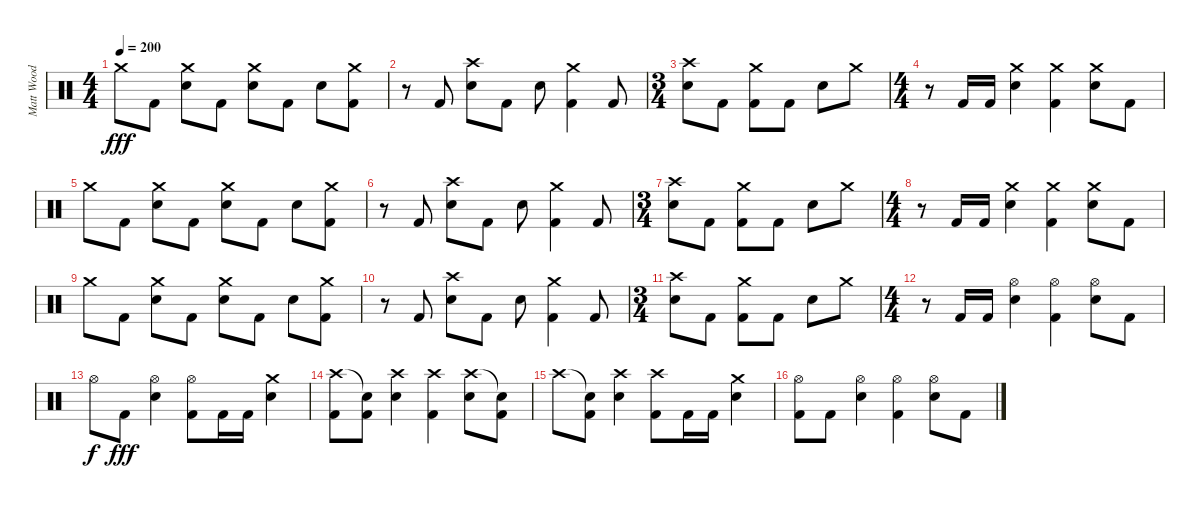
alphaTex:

\track ("Matt Wood" "Matt Wood") {instrument percussion}
\staff {score}
\articulation defaults
\ts (4 4)
\tempo 200
\clef neutral
\ks c "Crash medium (hit)".8{dy fff} "Kick (hit) 2".8
("Crash medium (hit)" "Electric Snare (hit)").8 "Kick (hit) 2".8 ("Crash medium (hit)" "Electric Snare (hit)").8 "Kick (hit) 2".8 "Electric Snare (hit)".8 ("Crash medium (hit)" "Kick (hit) 2").8 |
r.8 "Kick (hit) 2".8 ("Crash high (hit)" "Electric Snare (hit)").8 "Kick (hit) 2".8 "Electric Snare (hit)".8 ("Crash medium (hit)" "Kick (hit) 2").4 "Kick (hit) 2".8 |
\ts (3 4)
("Crash high (hit)" "Electric Snare (hit)").8 "Kick (hit) 2".8 ("Crash medium (hit)" "Kick (hit) 2").8 "Kick (hit) 2".8 "Electric Snare (hit)".8 "Crash medium (hit)".8 |
\ts (4 4)
r.8 "Kick (hit) 2".16 "Kick (hit) 2".16 ("Crash medium (hit)" "Electric Snare (hit)").4 ("Crash medium (hit)" "Kick (hit) 2").4 ("Crash medium (hit)" "Electric Snare (hit)").8 "Kick (hit) 2".8 |
"Crash medium (hit)".8 "Kick (hit) 2".8 ("Crash medium (hit)" "Electric Snare (hit)").8 "Kick (hit) 2".8 ("Crash medium (hit)" "Electric Snare (hit)").8 "Kick (hit) 2".8 "Electric Snare (hit)".8 ("Crash medium (hit)" "Kick (hit) 2").8 |
r.8 "Kick (hit) 2".8 ("Crash high (hit)" "Electric Snare (hit)").8 "Kick (hit) 2".8 "Electric Snare (hit)".8 ("Crash medium (hit)" "Kick (hit) 2").4 "Kick (hit) 2".8 |
\ts (3 4)
("Crash high (hit)" "Electric Snare (hit)").8 "Kick (hit) 2".8 ("Crash medium (hit)" "Kick (hit) 2").8 "Kick (hit) 2".8 "Electric Snare (hit)".8 "Crash medium (hit)".8 |
\ts (4 4)
r.8 "Kick (hit) 2".16 "Kick (hit) 2".16 ("Crash medium (hit)" "Electric Snare (hit)").4 ("Crash medium (hit)" "Kick (hit) 2").4 ("Crash medium (hit)" "Electric Snare (hit)").8 "Kick (hit) 2".8 |
"Crash medium (hit)".8 "Kick (hit) 2".8 ("Crash medium (hit)" "Electric Snare (hit)").8 "Kick (hit) 2".8 ("Crash medium (hit)" "Electric Snare (hit)").8 "Kick (hit) 2".8 "Electric Snare (hit)".8 ("Crash medium (hit)" "Kick (hit) 2").8 |
r.8 "Kick (hit) 2".8 ("Crash high (hit)" "Electric Snare (hit)").8 "Kick (hit) 2".8 "Electric Snare (hit)".8 ("Crash medium (hit)" "Kick (hit) 2").4 "Kick (hit) 2".8 |
\ts (3 4)
("Crash high (hit)" "Electric Snare (hit)").8 "Kick (hit) 2".8 ("Crash medium (hit)" "Kick (hit) 2").8 "Kick (hit) 2".8 "Electric Snare (hit)".8 "Crash medium (hit)".8 |
\ts (4 4)
r.8 "Kick (hit) 2".16 "Kick (hit) 2".16 ("Hi-Hat (open)" "Electric Snare (hit)").4 ("Hi-Hat (open)" "Kick (hit) 2").4 ("Hi-Hat (open)" "Electric Snare (hit)").8 "Kick (hit) 2".8 |
"Hi-Hat (open)".8{dy f} "Kick (hit) 2".8{dy fff} ("Hi-Hat (open)" "Electric Snare (hit)").4 ("Hi-Hat (open)" "Kick (hit) 2").8 "Kick (hit) 2".16 "Kick (hit) 2".16 ("Crash medium (hit)" "Electric Snare (hit)").4 |
("Crash high (hit)" "Kick (hit) 2").8 ("Snare (hit)"{t} "Kick (hit) 2").8 ("Crash high (hit)" "Electric Snare (hit)").4 ("Crash high (hit)" "Kick (hit) 2").4 ("Crash high (hit)" "Electric Snare (hit)").8 ("Snare (hit)"{t} "Kick (hit) 2").8 |
"Crash high (hit)".8 ("Snare (hit)"{t} "Kick (hit) 2").8 ("Crash high (hit)" "Electric Snare (hit)").4 ("Crash high (hit)" "Kick (hit) 2").8 "Kick (hit) 2".16 "Kick (hit) 2".16 ("Crash medium (hit)" "Electric Snare (hit)").4 |
("Hi-Hat (open)" "Kick (hit) 2").8 "Kick (hit) 2".8 ("Hi-Hat (open)" "Electric Snare (hit)").4 ("Hi-Hat (open)" "Kick (hit) 2").4 ("Hi-Hat (open)" "Electric Snare (hit)").8 "Kick (hit) 2".8
